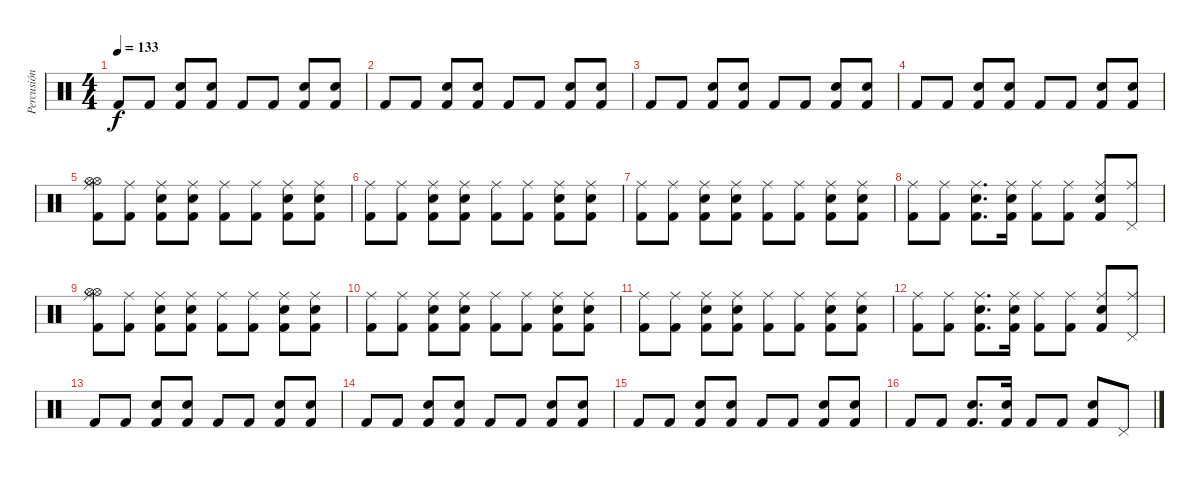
\track ("Percusión" "Percusión") {instrument percussion}
\staff {score}
\articulation defaults
\ts (4 4)
\tempo 133
\clef neutral
\ks c "Kick (hit) 2".8{dy f} "Kick (hit) 2".8
("Kick (hit) 2" "Snare (hit) 2").8 ("Kick (hit) 2" "Snare (hit) 2").8 "Kick (hit) 2".8 "Kick (hit) 2".8 ("Kick (hit) 2" "Snare (hit) 2").8 ("Kick (hit) 2" "Snare (hit) 2").8 |
"Kick (hit) 2".8 "Kick (hit) 2".8 ("Kick (hit) 2" "Snare (hit) 2").8 ("Kick (hit) 2" "Snare (hit) 2").8 "Kick (hit) 2".8 "Kick (hit) 2".8 ("Kick (hit) 2" "Snare (hit) 2").8 ("Kick (hit) 2" "Snare (hit) 2").8 |
"Kick (hit) 2".8 "Kick (hit) 2".8 ("Kick (hit) 2" "Snare (hit) 2").8 ("Kick (hit) 2" "Snare (hit) 2").8 "Kick (hit) 2".8 "Kick (hit) 2".8 ("Kick (hit) 2" "Snare (hit) 2").8 ("Kick (hit) 2" "Snare (hit) 2").8 |
"Kick (hit) 2".8 "Kick (hit) 2".8 ("Kick (hit) 2" "Snare (hit) 2").8 ("Kick (hit) 2" "Snare (hit) 2").8 "Kick (hit) 2".8 "Kick (hit) 2".8 ("Kick (hit) 2" "Snare (hit) 2").8 ("Kick (hit) 2" "Snare (hit) 2").8 |
("Kick (hit) 2" "Ride (middle)" "Hi-Hat (open)" "Hi-Hat (open)").8 ("Kick (hit) 2" "Ride (middle)").8 ("Kick (hit) 2" "Snare (hit) 2" "Ride (middle)").8 ("Kick (hit) 2" "Snare (hit) 2" "Ride (middle)").8 ("Kick (hit) 2" "Ride (middle)").8 ("Kick (hit) 2" "Ride (middle)").8 ("Kick (hit) 2" "Snare (hit) 2" "Ride (middle)").8 ("Kick (hit) 2" "Snare (hit) 2" "Ride (middle)").8 |
("Kick (hit) 2" "Ride (middle)").8 ("Kick (hit) 2" "Ride (middle)").8 ("Kick (hit) 2" "Snare (hit) 2" "Ride (middle)").8 ("Kick (hit) 2" "Snare (hit) 2" "Ride (middle)").8 ("Kick (hit) 2" "Ride (middle)").8 ("Kick (hit) 2" "Ride (middle)").8 ("Kick (hit) 2" "Snare (hit) 2" "Ride (middle)").8 ("Kick (hit) 2" "Snare (hit) 2" "Ride (middle)").8 |
("Kick (hit) 2" "Ride (middle)").8 ("Kick (hit) 2" "Ride (middle)").8 ("Kick (hit) 2" "Snare (hit) 2" "Ride (middle)").8 ("Kick (hit) 2" "Snare (hit) 2" "Ride (middle)").8 ("Kick (hit) 2" "Ride (middle)").8 ("Kick (hit) 2" "Ride (middle)").8 ("Kick (hit) 2" "Snare (hit) 2" "Ride (middle)").8 ("Kick (hit) 2" "Snare (hit) 2" "Ride (middle)").8 |
("Kick (hit) 2" "Ride (middle)").8 ("Kick (hit) 2" "Ride (middle)").8 ("Kick (hit) 2" "Snare (hit) 2" "Ride (middle)").8{d} ("Kick (hit) 2" "Snare (hit) 2" "Ride (middle)").16 ("Kick (hit) 2" "Ride (middle)").8 ("Kick (hit) 2" "Ride (middle)").8 ("Kick (hit) 2" "Snare (hit) 2" "Ride (middle)").8 ("Pedal Hi-Hat (hit)" "Ride (middle)").8 |
("Kick (hit) 2" "Ride (middle)" "Hi-Hat (open)" "Hi-Hat (open)").8 ("Kick (hit) 2" "Ride (middle)").8 ("Kick (hit) 2" "Snare (hit) 2" "Ride (middle)").8 ("Kick (hit) 2" "Snare (hit) 2" "Ride (middle)").8 ("Kick (hit) 2" "Ride (middle)").8 ("Kick (hit) 2" "Ride (middle)").8 ("Kick (hit) 2" "Snare (hit) 2" "Ride (middle)").8 ("Kick (hit) 2" "Snare (hit) 2" "Ride (middle)").8 |
("Kick (hit) 2" "Ride (middle)").8 ("Kick (hit) 2" "Ride (middle)").8 ("Kick (hit) 2" "Snare (hit) 2" "Ride (middle)").8 ("Kick (hit) 2" "Snare (hit) 2" "Ride (middle)").8 ("Kick (hit) 2" "Ride (middle)").8 ("Kick (hit) 2" "Ride (middle)").8 ("Kick (hit) 2" "Snare (hit) 2" "Ride (middle)").8 ("Kick (hit) 2" "Snare (hit) 2" "Ride (middle)").8 |
("Kick (hit) 2" "Ride (middle)").8 ("Kick (hit) 2" "Ride (middle)").8 ("Kick (hit) 2" "Snare (hit) 2" "Ride (middle)").8 ("Kick (hit) 2" "Snare (hit) 2" "Ride (middle)").8 ("Kick (hit) 2" "Ride (middle)").8 ("Kick (hit) 2" "Ride (middle)").8 ("Kick (hit) 2" "Snare (hit) 2" "Ride (middle)").8 ("Kick (hit) 2" "Snare (hit) 2" "Ride (middle)").8 |
("Kick (hit) 2" "Ride (middle)").8 ("Kick (hit) 2" "Ride (middle)").8 ("Kick (hit) 2" "Snare (hit) 2" "Ride (middle)").8{d} ("Kick (hit) 2" "Snare (hit) 2" "Ride (middle)").16 ("Kick (hit) 2" "Ride (middle)").8 ("Kick (hit) 2" "Ride (middle)").8 ("Kick (hit) 2" "Snare (hit) 2" "Ride (middle)").8 ("Pedal Hi-Hat (hit)" "Ride (middle)").8 |
"Kick (hit) 2".8 "Kick (hit) 2".8 ("Kick (hit) 2" "Snare (hit) 2").8 ("Kick (hit) 2" "Snare (hit) 2").8 "Kick (hit) 2".8 "Kick (hit) 2".8 ("Kick (hit) 2" "Snare (hit) 2").8 ("Kick (hit) 2" "Snare (hit) 2").8 |
"Kick (hit) 2".8 "Kick (hit) 2".8 ("Kick (hit) 2" "Snare (hit) 2").8 ("Kick (hit) 2" "Snare (hit) 2").8 "Kick (hit) 2".8 "Kick (hit) 2".8 ("Kick (hit) 2" "Snare (hit) 2").8 ("Kick (hit) 2" "Snare (hit) 2").8 |
"Kick (hit) 2".8 "Kick (hit) 2".8 ("Kick (hit) 2" "Snare (hit) 2").8 ("Kick (hit) 2" "Snare (hit) 2").8 "Kick (hit) 2".8 "Kick (hit) 2".8 ("Kick (hit) 2" "Snare (hit) 2").8 ("Kick (hit) 2" "Snare (hit) 2").8 |
"Kick (hit) 2".8 "Kick (hit) 2".8 ("Kick (hit) 2" "Snare (hit) 2").8{d} ("Kick (hit) 2" "Snare (hit) 2").16 "Kick (hit) 2".8 "Kick (hit) 2".8 ("Kick (hit) 2" "Snare (hit) 2").8 "Pedal Hi-Hat (hit)".8
